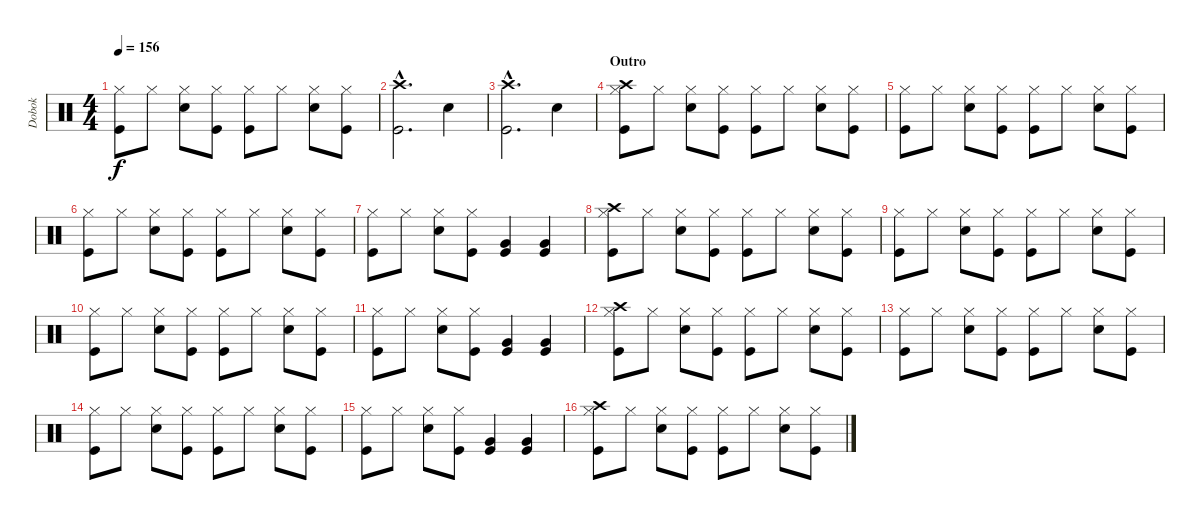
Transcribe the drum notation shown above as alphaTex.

\track ("Dobok" "Dobok") {instrument percussion}
\staff {score}
\articulation defaults
\ts (4 4)
\tempo 156
\clef neutral
\ks c
("Hi-Hat (closed)" "Kick (hit)").8{dy f} "Hi-Hat (closed)".8 ("Hi-Hat (closed)" "Electric Snare (hit)").8 ("Hi-Hat (closed)" "Kick (hit)").8 ("Hi-Hat (closed)" "Kick (hit)").8 "Hi-Hat (closed)".8 ("Hi-Hat (closed)" "Electric Snare (hit)").8 ("Hi-Hat (closed)" "Kick (hit)").8 |
("Crash high (hit)"{hac} "Kick (hit)"{hac}).2{d} "Electric Snare (hit)".4 |
("Crash high (hit)"{hac} "Kick (hit)"{hac}).2{d} "Electric Snare (hit)".4 |
\section ("" "Outro")
("Hi-Hat (closed)" "Crash high (hit)" "Kick (hit)").8 "Hi-Hat (closed)".8 ("Hi-Hat (closed)" "Electric Snare (hit)").8 ("Hi-Hat (closed)" "Kick (hit)").8 ("Hi-Hat (closed)" "Kick (hit)").8 "Hi-Hat (closed)".8 ("Hi-Hat (closed)" "Electric Snare (hit)").8 ("Hi-Hat (closed)" "Kick (hit)").8 |
("Hi-Hat (closed)" "Kick (hit)").8 "Hi-Hat (closed)".8 ("Hi-Hat (closed)" "Electric Snare (hit)").8 ("Hi-Hat (closed)" "Kick (hit)").8 ("Hi-Hat (closed)" "Kick (hit)").8 "Hi-Hat (closed)".8 ("Hi-Hat (closed)" "Electric Snare (hit)").8 ("Hi-Hat (closed)" "Kick (hit)").8 |
("Hi-Hat (closed)" "Kick (hit)").8 "Hi-Hat (closed)".8 ("Hi-Hat (closed)" "Electric Snare (hit)").8 ("Hi-Hat (closed)" "Kick (hit)").8 ("Hi-Hat (closed)" "Kick (hit)").8 "Hi-Hat (closed)".8 ("Hi-Hat (closed)" "Electric Snare (hit)").8 ("Hi-Hat (closed)" "Kick (hit)").8 |
("Hi-Hat (closed)" "Kick (hit)").8 "Hi-Hat (closed)".8 ("Hi-Hat (closed)" "Electric Snare (hit)").8 ("Hi-Hat (closed)" "Kick (hit)").8 ("Very Low Tom (hit)" "Kick (hit)").4 ("Very Low Tom (hit)" "Kick (hit)").4 |
("Hi-Hat (closed)" "Crash high (hit)" "Kick (hit)").8 "Hi-Hat (closed)".8 ("Hi-Hat (closed)" "Electric Snare (hit)").8 ("Hi-Hat (closed)" "Kick (hit)").8 ("Hi-Hat (closed)" "Kick (hit)").8 "Hi-Hat (closed)".8 ("Hi-Hat (closed)" "Electric Snare (hit)").8 ("Hi-Hat (closed)" "Kick (hit)").8 |
("Hi-Hat (closed)" "Kick (hit)").8 "Hi-Hat (closed)".8 ("Hi-Hat (closed)" "Electric Snare (hit)").8 ("Hi-Hat (closed)" "Kick (hit)").8 ("Hi-Hat (closed)" "Kick (hit)").8 "Hi-Hat (closed)".8 ("Hi-Hat (closed)" "Electric Snare (hit)").8 ("Hi-Hat (closed)" "Kick (hit)").8 |
("Hi-Hat (closed)" "Kick (hit)").8 "Hi-Hat (closed)".8 ("Hi-Hat (closed)" "Electric Snare (hit)").8 ("Hi-Hat (closed)" "Kick (hit)").8 ("Hi-Hat (closed)" "Kick (hit)").8 "Hi-Hat (closed)".8 ("Hi-Hat (closed)" "Electric Snare (hit)").8 ("Hi-Hat (closed)" "Kick (hit)").8 |
("Hi-Hat (closed)" "Kick (hit)").8 "Hi-Hat (closed)".8 ("Hi-Hat (closed)" "Electric Snare (hit)").8 ("Hi-Hat (closed)" "Kick (hit)").8 ("Very Low Tom (hit)" "Kick (hit)").4 ("Very Low Tom (hit)" "Kick (hit)").4 |
("Hi-Hat (closed)" "Crash high (hit)" "Kick (hit)").8 "Hi-Hat (closed)".8 ("Hi-Hat (closed)" "Electric Snare (hit)").8 ("Hi-Hat (closed)" "Kick (hit)").8 ("Hi-Hat (closed)" "Kick (hit)").8 "Hi-Hat (closed)".8 ("Hi-Hat (closed)" "Electric Snare (hit)").8 ("Hi-Hat (closed)" "Kick (hit)").8 |
("Hi-Hat (closed)" "Kick (hit)").8 "Hi-Hat (closed)".8 ("Hi-Hat (closed)" "Electric Snare (hit)").8 ("Hi-Hat (closed)" "Kick (hit)").8 ("Hi-Hat (closed)" "Kick (hit)").8 "Hi-Hat (closed)".8 ("Hi-Hat (closed)" "Electric Snare (hit)").8 ("Hi-Hat (closed)" "Kick (hit)").8 |
("Hi-Hat (closed)" "Kick (hit)").8 "Hi-Hat (closed)".8 ("Hi-Hat (closed)" "Electric Snare (hit)").8 ("Hi-Hat (closed)" "Kick (hit)").8 ("Hi-Hat (closed)" "Kick (hit)").8 "Hi-Hat (closed)".8 ("Hi-Hat (closed)" "Electric Snare (hit)").8 ("Hi-Hat (closed)" "Kick (hit)").8 |
("Hi-Hat (closed)" "Kick (hit)").8 "Hi-Hat (closed)".8 ("Hi-Hat (closed)" "Electric Snare (hit)").8 ("Hi-Hat (closed)" "Kick (hit)").8 ("Very Low Tom (hit)" "Kick (hit)").4 ("Very Low Tom (hit)" "Kick (hit)").4 |
("Hi-Hat (closed)" "Crash high (hit)" "Kick (hit)").8 "Hi-Hat (closed)".8 ("Hi-Hat (closed)" "Electric Snare (hit)").8 ("Hi-Hat (closed)" "Kick (hit)").8 ("Hi-Hat (closed)" "Kick (hit)").8 "Hi-Hat (closed)".8 ("Hi-Hat (closed)" "Electric Snare (hit)").8 ("Hi-Hat (closed)" "Kick (hit)").8
